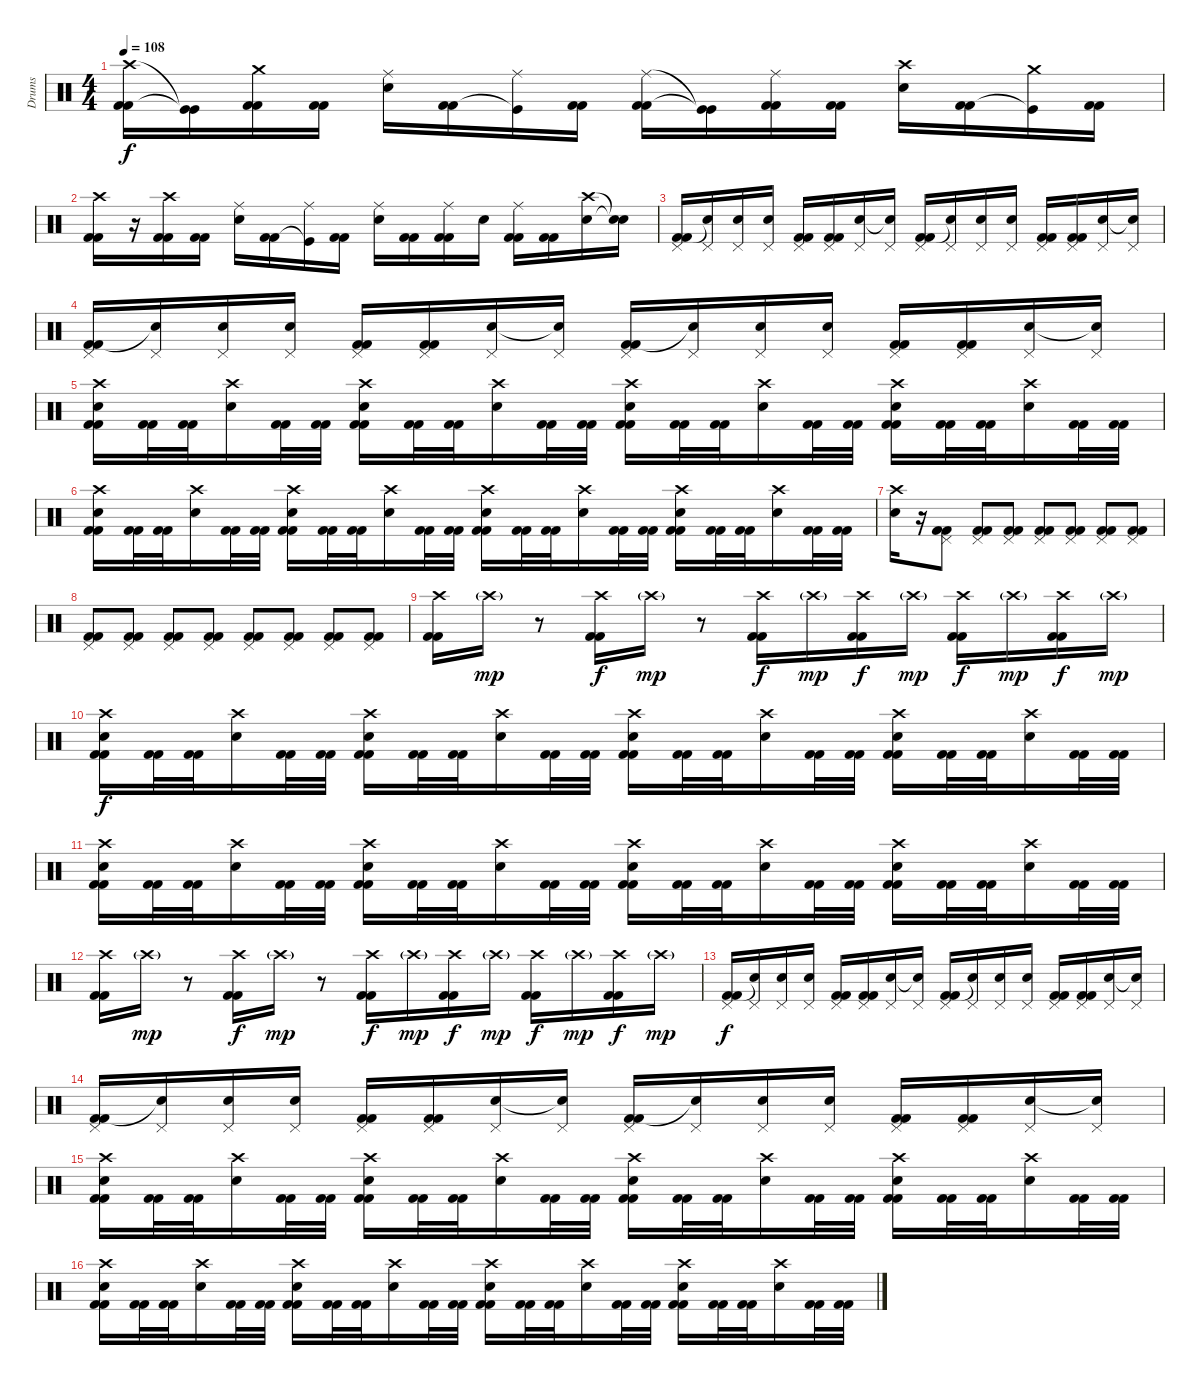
\track ("Drums" "Drums") {instrument percussion}
\staff {score}
\articulation defaults
\ts (4 4)
\tempo 108
\clef neutral
\ks c
("Crash high (hit)" "Kick (hit) 2" "Kick (hit) 2").16{dy f} ("Kick (hit)"{t} "Kick (hit)"{t}).16 ("Crash medium (hit)" "Kick (hit) 2" "Kick (hit) 2").16 ("Kick (hit) 2" "Kick (hit) 2").16 ("Ride (middle)" "Electric Snare (hit)").16 ("Kick (hit) 2" "Kick (hit) 2").16 ("Ride (middle)" "Kick (hit)"{t}).16 ("Kick (hit) 2" "Kick (hit) 2").16 ("Ride (middle)" "Kick (hit) 2" "Kick (hit) 2").16 ("Kick (hit)"{t} "Kick (hit)"{t}).16 ("Ride (middle)" "Kick (hit) 2" "Kick (hit) 2").16 ("Kick (hit) 2" "Kick (hit) 2").16 ("Crash high (hit)" "Electric Snare (hit)").16 ("Kick (hit) 2" "Kick (hit) 2").16 ("Crash medium (hit)" "Kick (hit)"{t}).16 ("Kick (hit) 2" "Kick (hit) 2").16 |
("Crash high (hit)" "Kick (hit) 2" "Kick (hit) 2").16 r.16 ("Crash high (hit)" "Kick (hit) 2" "Kick (hit) 2").16 ("Kick (hit) 2" "Kick (hit) 2").16 ("Ride (middle)" "Electric Snare (hit)").16 ("Kick (hit) 2" "Kick (hit) 2").16 ("Ride (middle)" "Kick (hit)"{t}).16 ("Kick (hit) 2" "Kick (hit) 2").16 ("Ride (middle)" "Electric Snare (hit)").16 ("Kick (hit) 2" "Kick (hit) 2").16 ("Ride (middle)" "Kick (hit) 2" "Kick (hit) 2").16 "Electric Snare (hit)".16 ("Ride (middle)" "Kick (hit) 2" "Kick (hit) 2").16 ("Kick (hit) 2" "Kick (hit) 2").16 ("Crash high (hit)" "Electric Snare (hit)").16 ("Snare (hit) 2"{t} "Snare (hit) 2"{t}).16 |
("Pedal Hi-Hat (hit)" "Kick (hit) 2" "Kick (hit) 2").16 ("Pedal Hi-Hat (hit)" "Snare (hit) 2"{t}).16 ("Pedal Hi-Hat (hit)" "Electric Snare (hit)").16 ("Pedal Hi-Hat (hit)" "Electric Snare (hit)").16 ("Pedal Hi-Hat (hit)" "Kick (hit) 2" "Kick (hit) 2").16 ("Pedal Hi-Hat (hit)" "Kick (hit) 2" "Kick (hit) 2").16 ("Pedal Hi-Hat (hit)" "Electric Snare (hit)").16 ("Pedal Hi-Hat (hit)" "Snare (hit) 2"{t}).16 ("Pedal Hi-Hat (hit)" "Kick (hit) 2" "Kick (hit) 2").16 ("Pedal Hi-Hat (hit)" "Snare (hit) 2"{t}).16 ("Pedal Hi-Hat (hit)" "Electric Snare (hit)").16 ("Pedal Hi-Hat (hit)" "Electric Snare (hit)").16 ("Pedal Hi-Hat (hit)" "Kick (hit) 2" "Kick (hit) 2").16 ("Pedal Hi-Hat (hit)" "Kick (hit) 2" "Kick (hit) 2").16 ("Pedal Hi-Hat (hit)" "Electric Snare (hit)").16 ("Pedal Hi-Hat (hit)" "Snare (hit)"{t}).16 |
("Pedal Hi-Hat (hit)" "Kick (hit) 2" "Kick (hit) 2").16 ("Pedal Hi-Hat (hit)" "Snare (hit) 2"{t}).16 ("Pedal Hi-Hat (hit)" "Electric Snare (hit)").16 ("Pedal Hi-Hat (hit)" "Electric Snare (hit)").16 ("Pedal Hi-Hat (hit)" "Kick (hit) 2" "Kick (hit) 2").16 ("Pedal Hi-Hat (hit)" "Kick (hit) 2" "Kick (hit) 2").16 ("Pedal Hi-Hat (hit)" "Electric Snare (hit)").16 ("Pedal Hi-Hat (hit)" "Snare (hit) 2"{t}).16 ("Pedal Hi-Hat (hit)" "Kick (hit) 2" "Kick (hit) 2").16 ("Pedal Hi-Hat (hit)" "Snare (hit) 2"{t}).16 ("Pedal Hi-Hat (hit)" "Electric Snare (hit)").16 ("Pedal Hi-Hat (hit)" "Electric Snare (hit)").16 ("Pedal Hi-Hat (hit)" "Kick (hit) 2" "Kick (hit) 2").16 ("Pedal Hi-Hat (hit)" "Kick (hit) 2" "Kick (hit) 2").16 ("Pedal Hi-Hat (hit)" "Electric Snare (hit)").16 ("Pedal Hi-Hat (hit)" "Snare (hit)"{t}).16 |
("Crash high (hit)" "Electric Snare (hit)" "Kick (hit) 2" "Kick (hit) 2").16 ("Kick (hit) 2" "Kick (hit) 2").32 ("Kick (hit) 2" "Kick (hit) 2").32 ("Crash high (hit)" "Electric Snare (hit)").16 ("Kick (hit) 2" "Kick (hit) 2").32 ("Kick (hit) 2" "Kick (hit) 2").32 ("Crash high (hit)" "Electric Snare (hit)" "Kick (hit) 2" "Kick (hit) 2").16 ("Kick (hit) 2" "Kick (hit) 2").32 ("Kick (hit) 2" "Kick (hit) 2").32 ("Crash high (hit)" "Electric Snare (hit)").16 ("Kick (hit) 2" "Kick (hit) 2").32 ("Kick (hit) 2" "Kick (hit) 2").32 ("Crash high (hit)" "Electric Snare (hit)" "Kick (hit) 2" "Kick (hit) 2").16 ("Kick (hit) 2" "Kick (hit) 2").32 ("Kick (hit) 2" "Kick (hit) 2").32 ("Crash high (hit)" "Electric Snare (hit)").16 ("Kick (hit) 2" "Kick (hit) 2").32 ("Kick (hit) 2" "Kick (hit) 2").32 ("Crash high (hit)" "Electric Snare (hit)" "Kick (hit) 2" "Kick (hit) 2").16 ("Kick (hit) 2" "Kick (hit) 2").32 ("Kick (hit) 2" "Kick (hit) 2").32 ("Crash high (hit)" "Electric Snare (hit)").16 ("Kick (hit) 2" "Kick (hit) 2").32 ("Kick (hit) 2" "Kick (hit) 2").32 |
("Crash high (hit)" "Electric Snare (hit)" "Kick (hit) 2" "Kick (hit) 2").16 ("Kick (hit) 2" "Kick (hit) 2").32 ("Kick (hit) 2" "Kick (hit) 2").32 ("Crash high (hit)" "Electric Snare (hit)").16 ("Kick (hit) 2" "Kick (hit) 2").32 ("Kick (hit) 2" "Kick (hit) 2").32 ("Crash high (hit)" "Electric Snare (hit)" "Kick (hit) 2" "Kick (hit) 2").16 ("Kick (hit) 2" "Kick (hit) 2").32 ("Kick (hit) 2" "Kick (hit) 2").32 ("Crash high (hit)" "Electric Snare (hit)").16 ("Kick (hit) 2" "Kick (hit) 2").32 ("Kick (hit) 2" "Kick (hit) 2").32 ("Crash high (hit)" "Electric Snare (hit)" "Kick (hit) 2" "Kick (hit) 2").16 ("Kick (hit) 2" "Kick (hit) 2").32 ("Kick (hit) 2" "Kick (hit) 2").32 ("Crash high (hit)" "Electric Snare (hit)").16 ("Kick (hit) 2" "Kick (hit) 2").32 ("Kick (hit) 2" "Kick (hit) 2").32 ("Crash high (hit)" "Electric Snare (hit)" "Kick (hit) 2" "Kick (hit) 2").16 ("Kick (hit) 2" "Kick (hit) 2").32 ("Kick (hit) 2" "Kick (hit) 2").32 ("Crash high (hit)" "Electric Snare (hit)").16 ("Kick (hit) 2" "Kick (hit) 2").32 ("Kick (hit) 2" "Kick (hit) 2").32 |
("Crash high (hit)" "Electric Snare (hit)").16 r.16 ("Pedal Hi-Hat (hit)" "Kick (hit) 2" "Kick (hit) 2").8 ("Pedal Hi-Hat (hit)" "Kick (hit) 2" "Kick (hit) 2").8 ("Pedal Hi-Hat (hit)" "Kick (hit) 2" "Kick (hit) 2").8 ("Pedal Hi-Hat (hit)" "Kick (hit) 2" "Kick (hit) 2").8 ("Pedal Hi-Hat (hit)" "Kick (hit) 2" "Kick (hit) 2").8 ("Pedal Hi-Hat (hit)" "Kick (hit) 2" "Kick (hit) 2").8 ("Pedal Hi-Hat (hit)" "Kick (hit) 2" "Kick (hit) 2").8 |
("Pedal Hi-Hat (hit)" "Kick (hit) 2" "Kick (hit) 2").8 ("Pedal Hi-Hat (hit)" "Kick (hit) 2" "Kick (hit) 2").8 ("Pedal Hi-Hat (hit)" "Kick (hit) 2" "Kick (hit) 2").8 ("Pedal Hi-Hat (hit)" "Kick (hit) 2" "Kick (hit) 2").8 ("Pedal Hi-Hat (hit)" "Kick (hit) 2" "Kick (hit) 2").8 ("Pedal Hi-Hat (hit)" "Kick (hit) 2" "Kick (hit) 2").8 ("Pedal Hi-Hat (hit)" "Kick (hit) 2" "Kick (hit) 2").8 ("Pedal Hi-Hat (hit)" "Kick (hit) 2" "Kick (hit) 2").8 |
("Crash high (hit)" "Kick (hit) 2" "Kick (hit) 2").16 "Crash high (hit)"{g}.16{dy mp} r.8 ("Crash high (hit)" "Kick (hit) 2" "Kick (hit) 2").16{dy f} "Crash high (hit)"{g}.16{dy mp} r.8 ("Crash high (hit)" "Kick (hit) 2" "Kick (hit) 2").16{dy f} "Crash high (hit)"{g}.16{dy mp} ("Crash high (hit)" "Kick (hit) 2" "Kick (hit) 2").16{dy f} "Crash high (hit)"{g}.16{dy mp} ("Crash high (hit)" "Kick (hit) 2" "Kick (hit) 2").16{dy f} "Crash high (hit)"{g}.16{dy mp} ("Crash high (hit)" "Kick (hit) 2" "Kick (hit) 2").16{dy f} "Crash high (hit)"{g}.16{dy mp} |
("Crash high (hit)" "Electric Snare (hit)" "Kick (hit) 2" "Kick (hit) 2").16{dy f} ("Kick (hit) 2" "Kick (hit) 2").32 ("Kick (hit) 2" "Kick (hit) 2").32 ("Crash high (hit)" "Electric Snare (hit)").16 ("Kick (hit) 2" "Kick (hit) 2").32 ("Kick (hit) 2" "Kick (hit) 2").32 ("Crash high (hit)" "Electric Snare (hit)" "Kick (hit) 2" "Kick (hit) 2").16 ("Kick (hit) 2" "Kick (hit) 2").32 ("Kick (hit) 2" "Kick (hit) 2").32 ("Crash high (hit)" "Electric Snare (hit)").16 ("Kick (hit) 2" "Kick (hit) 2").32 ("Kick (hit) 2" "Kick (hit) 2").32 ("Crash high (hit)" "Electric Snare (hit)" "Kick (hit) 2" "Kick (hit) 2").16 ("Kick (hit) 2" "Kick (hit) 2").32 ("Kick (hit) 2" "Kick (hit) 2").32 ("Crash high (hit)" "Electric Snare (hit)").16 ("Kick (hit) 2" "Kick (hit) 2").32 ("Kick (hit) 2" "Kick (hit) 2").32 ("Crash high (hit)" "Electric Snare (hit)" "Kick (hit) 2" "Kick (hit) 2").16 ("Kick (hit) 2" "Kick (hit) 2").32 ("Kick (hit) 2" "Kick (hit) 2").32 ("Crash high (hit)" "Electric Snare (hit)").16 ("Kick (hit) 2" "Kick (hit) 2").32 ("Kick (hit) 2" "Kick (hit) 2").32 |
("Crash high (hit)" "Electric Snare (hit)" "Kick (hit) 2" "Kick (hit) 2").16 ("Kick (hit) 2" "Kick (hit) 2").32 ("Kick (hit) 2" "Kick (hit) 2").32 ("Crash high (hit)" "Electric Snare (hit)").16 ("Kick (hit) 2" "Kick (hit) 2").32 ("Kick (hit) 2" "Kick (hit) 2").32 ("Crash high (hit)" "Electric Snare (hit)" "Kick (hit) 2" "Kick (hit) 2").16 ("Kick (hit) 2" "Kick (hit) 2").32 ("Kick (hit) 2" "Kick (hit) 2").32 ("Crash high (hit)" "Electric Snare (hit)").16 ("Kick (hit) 2" "Kick (hit) 2").32 ("Kick (hit) 2" "Kick (hit) 2").32 ("Crash high (hit)" "Electric Snare (hit)" "Kick (hit) 2" "Kick (hit) 2").16 ("Kick (hit) 2" "Kick (hit) 2").32 ("Kick (hit) 2" "Kick (hit) 2").32 ("Crash high (hit)" "Electric Snare (hit)").16 ("Kick (hit) 2" "Kick (hit) 2").32 ("Kick (hit) 2" "Kick (hit) 2").32 ("Crash high (hit)" "Electric Snare (hit)" "Kick (hit) 2" "Kick (hit) 2").16 ("Kick (hit) 2" "Kick (hit) 2").32 ("Kick (hit) 2" "Kick (hit) 2").32 ("Crash high (hit)" "Electric Snare (hit)").16 ("Kick (hit) 2" "Kick (hit) 2").32 ("Kick (hit) 2" "Kick (hit) 2").32 |
("Crash high (hit)" "Kick (hit) 2" "Kick (hit) 2").16 "Crash high (hit)"{g}.16{dy mp} r.8 ("Crash high (hit)" "Kick (hit) 2" "Kick (hit) 2").16{dy f} "Crash high (hit)"{g}.16{dy mp} r.8 ("Crash high (hit)" "Kick (hit) 2" "Kick (hit) 2").16{dy f} "Crash high (hit)"{g}.16{dy mp} ("Crash high (hit)" "Kick (hit) 2" "Kick (hit) 2").16{dy f} "Crash high (hit)"{g}.16{dy mp} ("Crash high (hit)" "Kick (hit) 2" "Kick (hit) 2").16{dy f} "Crash high (hit)"{g}.16{dy mp} ("Crash high (hit)" "Kick (hit) 2" "Kick (hit) 2").16{dy f} "Crash high (hit)"{g}.16{dy mp} |
("Pedal Hi-Hat (hit)" "Kick (hit) 2" "Kick (hit) 2").16{dy f} ("Pedal Hi-Hat (hit)" "Snare (hit) 2"{t}).16 ("Pedal Hi-Hat (hit)" "Electric Snare (hit)").16 ("Pedal Hi-Hat (hit)" "Electric Snare (hit)").16 ("Pedal Hi-Hat (hit)" "Kick (hit) 2" "Kick (hit) 2").16 ("Pedal Hi-Hat (hit)" "Kick (hit) 2" "Kick (hit) 2").16 ("Pedal Hi-Hat (hit)" "Electric Snare (hit)").16 ("Pedal Hi-Hat (hit)" "Snare (hit) 2"{t}).16 ("Pedal Hi-Hat (hit)" "Kick (hit) 2" "Kick (hit) 2").16 ("Pedal Hi-Hat (hit)" "Snare (hit) 2"{t}).16 ("Pedal Hi-Hat (hit)" "Electric Snare (hit)").16 ("Pedal Hi-Hat (hit)" "Electric Snare (hit)").16 ("Pedal Hi-Hat (hit)" "Kick (hit) 2" "Kick (hit) 2").16 ("Pedal Hi-Hat (hit)" "Kick (hit) 2" "Kick (hit) 2").16 ("Pedal Hi-Hat (hit)" "Electric Snare (hit)").16 ("Pedal Hi-Hat (hit)" "Snare (hit)"{t}).16 |
("Pedal Hi-Hat (hit)" "Kick (hit) 2" "Kick (hit) 2").16 ("Pedal Hi-Hat (hit)" "Snare (hit) 2"{t}).16 ("Pedal Hi-Hat (hit)" "Electric Snare (hit)").16 ("Pedal Hi-Hat (hit)" "Electric Snare (hit)").16 ("Pedal Hi-Hat (hit)" "Kick (hit) 2" "Kick (hit) 2").16 ("Pedal Hi-Hat (hit)" "Kick (hit) 2" "Kick (hit) 2").16 ("Pedal Hi-Hat (hit)" "Electric Snare (hit)").16 ("Pedal Hi-Hat (hit)" "Snare (hit) 2"{t}).16 ("Pedal Hi-Hat (hit)" "Kick (hit) 2" "Kick (hit) 2").16 ("Pedal Hi-Hat (hit)" "Snare (hit) 2"{t}).16 ("Pedal Hi-Hat (hit)" "Electric Snare (hit)").16 ("Pedal Hi-Hat (hit)" "Electric Snare (hit)").16 ("Pedal Hi-Hat (hit)" "Kick (hit) 2" "Kick (hit) 2").16 ("Pedal Hi-Hat (hit)" "Kick (hit) 2" "Kick (hit) 2").16 ("Pedal Hi-Hat (hit)" "Electric Snare (hit)").16 ("Pedal Hi-Hat (hit)" "Snare (hit)"{t}).16 |
("Crash high (hit)" "Electric Snare (hit)" "Kick (hit) 2" "Kick (hit) 2").16 ("Kick (hit) 2" "Kick (hit) 2").32 ("Kick (hit) 2" "Kick (hit) 2").32 ("Crash high (hit)" "Electric Snare (hit)").16 ("Kick (hit) 2" "Kick (hit) 2").32 ("Kick (hit) 2" "Kick (hit) 2").32 ("Crash high (hit)" "Electric Snare (hit)" "Kick (hit) 2" "Kick (hit) 2").16 ("Kick (hit) 2" "Kick (hit) 2").32 ("Kick (hit) 2" "Kick (hit) 2").32 ("Crash high (hit)" "Electric Snare (hit)").16 ("Kick (hit) 2" "Kick (hit) 2").32 ("Kick (hit) 2" "Kick (hit) 2").32 ("Crash high (hit)" "Electric Snare (hit)" "Kick (hit) 2" "Kick (hit) 2").16 ("Kick (hit) 2" "Kick (hit) 2").32 ("Kick (hit) 2" "Kick (hit) 2").32 ("Crash high (hit)" "Electric Snare (hit)").16 ("Kick (hit) 2" "Kick (hit) 2").32 ("Kick (hit) 2" "Kick (hit) 2").32 ("Crash high (hit)" "Electric Snare (hit)" "Kick (hit) 2" "Kick (hit) 2").16 ("Kick (hit) 2" "Kick (hit) 2").32 ("Kick (hit) 2" "Kick (hit) 2").32 ("Crash high (hit)" "Electric Snare (hit)").16 ("Kick (hit) 2" "Kick (hit) 2").32 ("Kick (hit) 2" "Kick (hit) 2").32 |
("Crash high (hit)" "Electric Snare (hit)" "Kick (hit) 2" "Kick (hit) 2").16 ("Kick (hit) 2" "Kick (hit) 2").32 ("Kick (hit) 2" "Kick (hit) 2").32 ("Crash high (hit)" "Electric Snare (hit)").16 ("Kick (hit) 2" "Kick (hit) 2").32 ("Kick (hit) 2" "Kick (hit) 2").32 ("Crash high (hit)" "Electric Snare (hit)" "Kick (hit) 2" "Kick (hit) 2").16 ("Kick (hit) 2" "Kick (hit) 2").32 ("Kick (hit) 2" "Kick (hit) 2").32 ("Crash high (hit)" "Electric Snare (hit)").16 ("Kick (hit) 2" "Kick (hit) 2").32 ("Kick (hit) 2" "Kick (hit) 2").32 ("Crash high (hit)" "Electric Snare (hit)" "Kick (hit) 2" "Kick (hit) 2").16 ("Kick (hit) 2" "Kick (hit) 2").32 ("Kick (hit) 2" "Kick (hit) 2").32 ("Crash high (hit)" "Electric Snare (hit)").16 ("Kick (hit) 2" "Kick (hit) 2").32 ("Kick (hit) 2" "Kick (hit) 2").32 ("Crash high (hit)" "Electric Snare (hit)" "Kick (hit) 2" "Kick (hit) 2").16 ("Kick (hit) 2" "Kick (hit) 2").32 ("Kick (hit) 2" "Kick (hit) 2").32 ("Crash high (hit)" "Electric Snare (hit)").16 ("Kick (hit) 2" "Kick (hit) 2").32 ("Kick (hit) 2" "Kick (hit) 2").32
